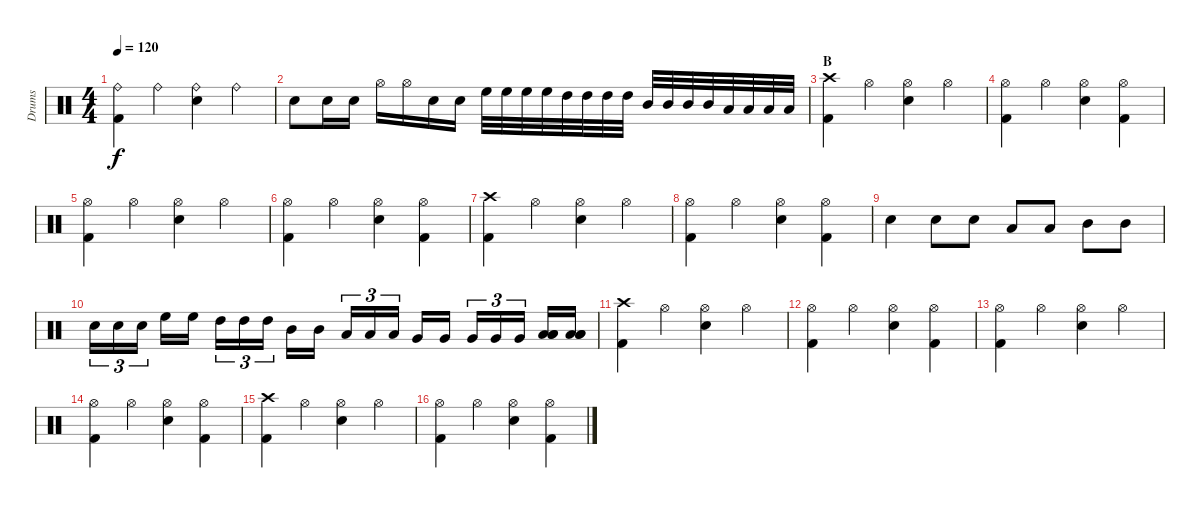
\track ("Drums" "Drums") {instrument percussion}
\staff {score}
\articulation defaults
\ts (4 4)
\tempo 120
\clef neutral
\ks c
("Ride (bell)" "Kick (hit) 2").4{dy f} "Ride (bell)".4 ("Ride (bell)" "Snare (hit) 2").4 "Ride (bell)".4 |
"Snare (hit) 2".8 "Snare (hit) 2".16 "Snare (hit) 2".16 "Hi-Hat (open)".16 "Hi-Hat (open)".16 "Snare (hit) 2".16 "Snare (hit) 2".16 "High Floor Tom (hit)".32 "High Floor Tom (hit)".32 "High Floor Tom (hit)".32 "High Floor Tom (hit)".32 "High Tom (hit)".32 "High Tom (hit)".32 "High Tom (hit)".32 "High Tom (hit)".32 "Mid Tom (hit)".32 "Mid Tom (hit)".32 "Mid Tom (hit)".32 "Mid Tom (hit)".32 "Low Tom (hit)".32 "Low Tom (hit)".32 "Low Tom (hit)".32 "Low Tom (hit)".32 |
\section ("" "B")
("Crash high (hit)" "Kick (hit) 2").4 "Hi-Hat (open)".4 ("Hi-Hat (open)" "Snare (hit) 2").4 "Hi-Hat (open)".4 |
("Hi-Hat (open)" "Kick (hit) 2").4 "Hi-Hat (open)".4 ("Hi-Hat (open)" "Snare (hit) 2").4 ("Hi-Hat (open)" "Kick (hit) 2").4 |
("Hi-Hat (open)" "Kick (hit) 2").4 "Hi-Hat (open)".4 ("Hi-Hat (open)" "Snare (hit) 2").4 "Hi-Hat (open)".4 |
("Hi-Hat (open)" "Kick (hit) 2").4 "Hi-Hat (open)".4 ("Hi-Hat (open)" "Snare (hit) 2").4 ("Hi-Hat (open)" "Kick (hit) 2").4 |
("Crash high (hit)" "Kick (hit) 2").4 "Hi-Hat (open)".4 ("Hi-Hat (open)" "Snare (hit) 2").4 "Hi-Hat (open)".4 |
("Hi-Hat (open)" "Kick (hit) 2").4 "Hi-Hat (open)".4 ("Hi-Hat (open)" "Snare (hit) 2").4 ("Hi-Hat (open)" "Kick (hit) 2").4 |
"Snare (hit) 2".4 "Snare (hit) 2".8 "Snare (hit) 2".8 "Low Tom (hit)".8 "Low Tom (hit)".8 "Mid Tom (hit)".8 "Mid Tom (hit)".8 |
"Snare (hit) 2".16{tu (3 2)} "Snare (hit) 2".16{tu (3 2)} "Snare (hit) 2".16{tu (3 2)} "High Floor Tom (hit)".16 "High Floor Tom (hit)".16 "High Tom (hit)".16{tu (3 2)} "High Tom (hit)".16{tu (3 2)} "High Tom (hit)".16{tu (3 2)} "Mid Tom (hit)".16 "Mid Tom (hit)".16 "Low Tom (hit)".16{tu (3 2)} "Low Tom (hit)".16{tu (3 2)} "Low Tom (hit)".16{tu (3 2)} "Very Low Tom (hit)".16 "Very Low Tom (hit)".16 "Very Low Tom (hit)".16{tu (3 2)} "Very Low Tom (hit)".16{tu (3 2)} "Very Low Tom (hit)".16{tu (3 2)} ("Low Floor Tom (hit)" "Low Floor Tom (hit)" "Low Floor Tom (hit)").16 ("Low Floor Tom (hit)" "Low Floor Tom (hit)" "Low Floor Tom (hit)").16 |
("Crash high (hit)" "Kick (hit) 2").4 "Hi-Hat (open)".4 ("Hi-Hat (open)" "Snare (hit) 2").4 "Hi-Hat (open)".4 |
("Hi-Hat (open)" "Kick (hit) 2").4 "Hi-Hat (open)".4 ("Hi-Hat (open)" "Snare (hit) 2").4 ("Hi-Hat (open)" "Kick (hit) 2").4 |
("Hi-Hat (open)" "Kick (hit) 2").4 "Hi-Hat (open)".4 ("Hi-Hat (open)" "Snare (hit) 2").4 "Hi-Hat (open)".4 |
("Hi-Hat (open)" "Kick (hit) 2").4 "Hi-Hat (open)".4 ("Hi-Hat (open)" "Snare (hit) 2").4 ("Hi-Hat (open)" "Kick (hit) 2").4 |
("Crash high (hit)" "Kick (hit) 2").4 "Hi-Hat (open)".4 ("Hi-Hat (open)" "Snare (hit) 2").4 "Hi-Hat (open)".4 |
("Hi-Hat (open)" "Kick (hit) 2").4 "Hi-Hat (open)".4 ("Hi-Hat (open)" "Snare (hit) 2").4 ("Hi-Hat (open)" "Kick (hit) 2").4
